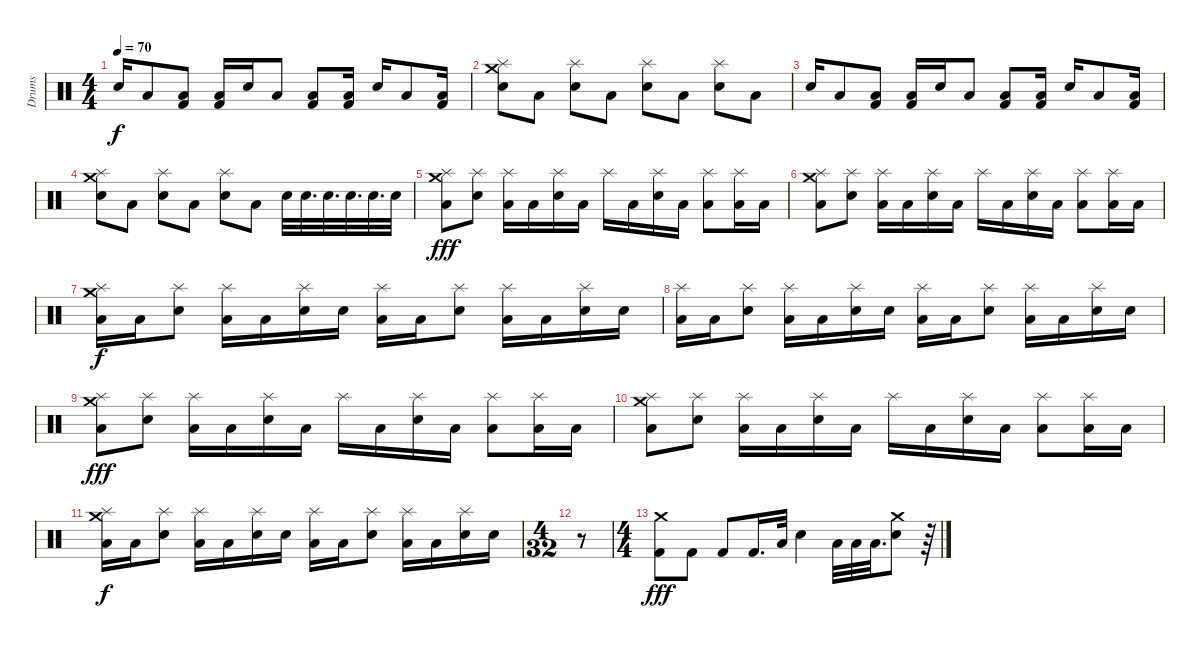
\track ("Drums" "Drums") {instrument percussion}
\staff {score}
\articulation defaults
\ts (4 4)
\tempo 70
\clef neutral
\ks c "Electric Snare (hit)".16{dy f} "Low Floor Tom (hit)".8
("Low Floor Tom (hit)" "Kick (hit) 2").8 ("Low Floor Tom (hit)" "Kick (hit) 2").16 "Electric Snare (hit)".16 "Low Floor Tom (hit)".8 ("Low Floor Tom (hit)" "Kick (hit) 2").8 ("Low Floor Tom (hit)" "Kick (hit) 2").16 "Electric Snare (hit)".16 "Low Floor Tom (hit)".8 ("Low Floor Tom (hit)" "Kick (hit) 2").16 |
("Crash medium (hit)" "Splash (hit)" "Electric Snare (hit)").8 "Low Floor Tom (hit)".8 ("Splash (hit)" "Electric Snare (hit)").8 "Low Floor Tom (hit)".8 ("Splash (hit)" "Electric Snare (hit)").8 "Low Floor Tom (hit)".8 ("Splash (hit)" "Electric Snare (hit)").8 "Low Floor Tom (hit)".8 |
"Electric Snare (hit)".16 "Low Floor Tom (hit)".8 ("Low Floor Tom (hit)" "Kick (hit) 2").8 ("Low Floor Tom (hit)" "Kick (hit) 2").16 "Electric Snare (hit)".16 "Low Floor Tom (hit)".8 ("Low Floor Tom (hit)" "Kick (hit) 2").8 ("Low Floor Tom (hit)" "Kick (hit) 2").16 "Electric Snare (hit)".16 "Low Floor Tom (hit)".8 ("Low Floor Tom (hit)" "Kick (hit) 2").16 |
("Crash medium (hit)" "Splash (hit)" "Electric Snare (hit)").8 "Low Floor Tom (hit)".8 ("Splash (hit)" "Electric Snare (hit)").8 "Low Floor Tom (hit)".8 ("Splash (hit)" "Electric Snare (hit)").8 "Low Floor Tom (hit)".8 "Electric Snare (hit)".32 "Electric Snare (hit)".32{d} "Electric Snare (hit)".32{d} "Electric Snare (hit)".32{d} "Electric Snare (hit)".32{d} "Electric Snare (hit)".32 |
("Crash medium (hit)" "Splash (hit)" "Low Floor Tom (hit)").8{dy fff} ("Splash (hit)" "Electric Snare (hit)").8 ("Splash (hit)" "Low Floor Tom (hit)").16 "Low Floor Tom (hit)".16 ("Splash (hit)" "Electric Snare (hit)").16 "Low Floor Tom (hit)".16 "Splash (hit)".16 "Low Floor Tom (hit)".16 ("Splash (hit)" "Electric Snare (hit)").16 "Low Floor Tom (hit)".16 ("Splash (hit)" "Low Floor Tom (hit)").8 ("Splash (hit)" "Low Floor Tom (hit)").16 "Low Floor Tom (hit)".16 |
("Crash medium (hit)" "Splash (hit)" "Low Floor Tom (hit)").8 ("Splash (hit)" "Electric Snare (hit)").8 ("Splash (hit)" "Low Floor Tom (hit)").16 "Low Floor Tom (hit)".16 ("Splash (hit)" "Electric Snare (hit)").16 "Low Floor Tom (hit)".16 "Splash (hit)".16 "Low Floor Tom (hit)".16 ("Splash (hit)" "Electric Snare (hit)").16 "Low Floor Tom (hit)".16 ("Splash (hit)" "Low Floor Tom (hit)").8 ("Splash (hit)" "Low Floor Tom (hit)").16 "Low Floor Tom (hit)".16 |
("Crash medium (hit)" "Splash (hit)" "Low Floor Tom (hit)").16{dy f} "Low Floor Tom (hit)".16 ("Splash (hit)" "Electric Snare (hit)").8 ("Splash (hit)" "Low Floor Tom (hit)").16 "Low Floor Tom (hit)".16 ("Splash (hit)" "Electric Snare (hit)").16 "Electric Snare (hit)".16 ("Splash (hit)" "Low Floor Tom (hit)").16 "Low Floor Tom (hit)".16 ("Splash (hit)" "Electric Snare (hit)").8 ("Splash (hit)" "Low Floor Tom (hit)").16 "Low Floor Tom (hit)".16 ("Splash (hit)" "Electric Snare (hit)").16 "Electric Snare (hit)".16 |
("Splash (hit)" "Low Floor Tom (hit)").16 "Low Floor Tom (hit)".16 ("Splash (hit)" "Electric Snare (hit)").8 ("Splash (hit)" "Low Floor Tom (hit)").16 "Low Floor Tom (hit)".16 ("Splash (hit)" "Electric Snare (hit)").16 "Electric Snare (hit)".16 ("Splash (hit)" "Low Floor Tom (hit)").16 "Low Floor Tom (hit)".16 ("Splash (hit)" "Electric Snare (hit)").8 ("Splash (hit)" "Low Floor Tom (hit)").16 "Low Floor Tom (hit)".16 ("Splash (hit)" "Electric Snare (hit)").16 "Electric Snare (hit)".16 |
("Crash medium (hit)" "Splash (hit)" "Low Floor Tom (hit)").8{dy fff} ("Splash (hit)" "Electric Snare (hit)").8 ("Splash (hit)" "Low Floor Tom (hit)").16 "Low Floor Tom (hit)".16 ("Splash (hit)" "Electric Snare (hit)").16 "Low Floor Tom (hit)".16 "Splash (hit)".16 "Low Floor Tom (hit)".16 ("Splash (hit)" "Electric Snare (hit)").16 "Low Floor Tom (hit)".16 ("Splash (hit)" "Low Floor Tom (hit)").8 ("Splash (hit)" "Low Floor Tom (hit)").16 "Low Floor Tom (hit)".16 |
("Crash medium (hit)" "Splash (hit)" "Low Floor Tom (hit)").8 ("Splash (hit)" "Electric Snare (hit)").8 ("Splash (hit)" "Low Floor Tom (hit)").16 "Low Floor Tom (hit)".16 ("Splash (hit)" "Electric Snare (hit)").16 "Low Floor Tom (hit)".16 "Splash (hit)".16 "Low Floor Tom (hit)".16 ("Splash (hit)" "Electric Snare (hit)").16 "Low Floor Tom (hit)".16 ("Splash (hit)" "Low Floor Tom (hit)").8 ("Splash (hit)" "Low Floor Tom (hit)").16 "Low Floor Tom (hit)".16 |
("Crash medium (hit)" "Splash (hit)" "Low Floor Tom (hit)").16{dy f} "Low Floor Tom (hit)".16 ("Splash (hit)" "Electric Snare (hit)").8 ("Splash (hit)" "Low Floor Tom (hit)").16 "Low Floor Tom (hit)".16 ("Splash (hit)" "Electric Snare (hit)").16 "Electric Snare (hit)".16 ("Splash (hit)" "Low Floor Tom (hit)").16 "Low Floor Tom (hit)".16 ("Splash (hit)" "Electric Snare (hit)").8 ("Splash (hit)" "Low Floor Tom (hit)").16 "Low Floor Tom (hit)".16 ("Splash (hit)" "Electric Snare (hit)").16 "Electric Snare (hit)".16 |
\ts (4 32)
r.8 |
\ts (4 4)
("Crash medium (hit)" "Kick (hit) 2").8{dy fff} "Kick (hit) 2".8 "Kick (hit) 2".8 "Kick (hit) 2".16{d} "Low Floor Tom (hit)".32 "Electric Snare (hit)".4 "Low Floor Tom (hit)".32 "Low Floor Tom (hit)".32 "Low Floor Tom (hit)".32{d} ("Crash medium (hit)" "Electric Snare (hit)").8 r.64
